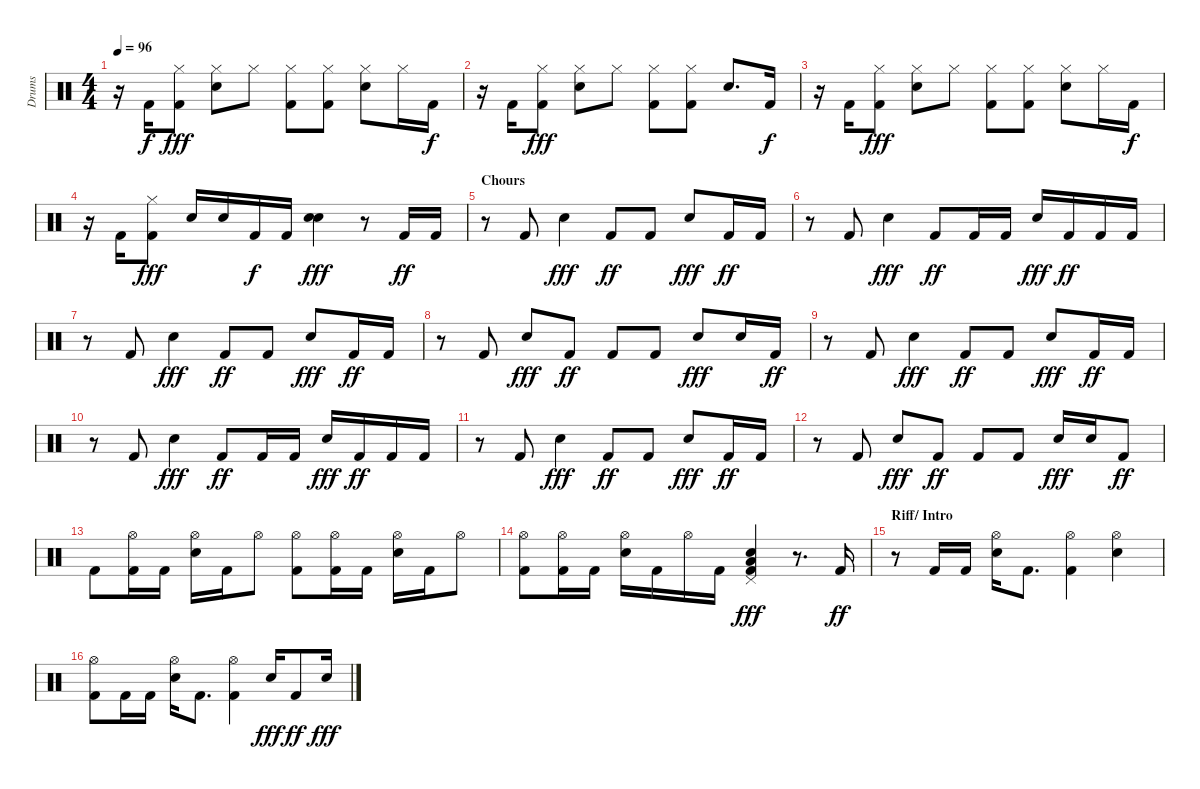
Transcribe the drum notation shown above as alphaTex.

\track ("Drums" "Drums") {instrument percussion}
\staff {score}
\articulation defaults
\ts (4 4)
\tempo 96
\clef neutral
\ks c
r.16{dy f} "Kick (hit) 2".16 ("Hi-Hat (closed)" "Kick (hit) 2").8{dy fff} ("Snare (hit) 2" "Hi-Hat (closed)").8 "Hi-Hat (closed)".8 ("Hi-Hat (closed)" "Kick (hit) 2").8 ("Hi-Hat (closed)" "Kick (hit) 2").8 ("Snare (hit) 2" "Hi-Hat (closed)").8 "Hi-Hat (closed)".16 "Kick (hit) 2".16{dy f} |
r.16 "Kick (hit) 2".16 ("Hi-Hat (closed)" "Kick (hit) 2").8{dy fff} ("Snare (hit) 2" "Hi-Hat (closed)").8 "Hi-Hat (closed)".8 ("Hi-Hat (closed)" "Kick (hit) 2").8 ("Hi-Hat (closed)" "Kick (hit) 2").8 "Snare (hit) 2".8{d} "Kick (hit) 2".16{dy f} |
r.16 "Kick (hit) 2".16 ("Hi-Hat (closed)" "Kick (hit) 2").8{dy fff} ("Snare (hit) 2" "Hi-Hat (closed)").8 "Hi-Hat (closed)".8 ("Hi-Hat (closed)" "Kick (hit) 2").8 ("Hi-Hat (closed)" "Kick (hit) 2").8 ("Snare (hit) 2" "Hi-Hat (closed)").8 "Hi-Hat (closed)".16 "Kick (hit) 2".16{dy f} |
r.16 "Kick (hit) 2".16 ("Hi-Hat (closed)" "Kick (hit) 2").8{dy fff} "Snare (hit) 2".16 "Snare (hit) 2".16 "Kick (hit) 2".16{dy f} "Kick (hit) 2".16 ("Snare (hit) 2" "Snare (hit) 2").4{dy fff} r.8 "Kick (hit) 2".16{dy ff} "Kick (hit) 2".16 |
\section ("" "Chours")
r.8 "Kick (hit) 2".8 "Snare (hit) 2".4{dy fff} "Kick (hit) 2".8{dy ff} "Kick (hit) 2".8 "Snare (hit) 2".8{dy fff} "Kick (hit) 2".16{dy ff} "Kick (hit) 2".16 |
r.8 "Kick (hit) 2".8 "Snare (hit) 2".4{dy fff} "Kick (hit) 2".8{dy ff} "Kick (hit) 2".16 "Kick (hit) 2".16 "Snare (hit) 2".16{dy fff} "Kick (hit) 2".16{dy ff} "Kick (hit) 2".16 "Kick (hit) 2".16 |
r.8 "Kick (hit) 2".8 "Snare (hit) 2".4{dy fff} "Kick (hit) 2".8{dy ff} "Kick (hit) 2".8 "Snare (hit) 2".8{dy fff} "Kick (hit) 2".16{dy ff} "Kick (hit) 2".16 |
r.8 "Kick (hit) 2".8 "Snare (hit) 2".8{dy fff} "Kick (hit) 2".8{dy ff} "Kick (hit) 2".8 "Kick (hit) 2".8 "Snare (hit) 2".8{dy fff} "Snare (hit) 2".16 "Kick (hit) 2".16{dy ff} |
r.8 "Kick (hit) 2".8 "Snare (hit) 2".4{dy fff} "Kick (hit) 2".8{dy ff} "Kick (hit) 2".8 "Snare (hit) 2".8{dy fff} "Kick (hit) 2".16{dy ff} "Kick (hit) 2".16 |
r.8 "Kick (hit) 2".8 "Snare (hit) 2".4{dy fff} "Kick (hit) 2".8{dy ff} "Kick (hit) 2".16 "Kick (hit) 2".16 "Snare (hit) 2".16{dy fff} "Kick (hit) 2".16{dy ff} "Kick (hit) 2".16 "Kick (hit) 2".16 |
r.8 "Kick (hit) 2".8 "Snare (hit) 2".4{dy fff} "Kick (hit) 2".8{dy ff} "Kick (hit) 2".8 "Snare (hit) 2".8{dy fff} "Kick (hit) 2".16{dy ff} "Kick (hit) 2".16 |
r.8 "Kick (hit) 2".8 "Snare (hit) 2".8{dy fff} "Kick (hit) 2".8{dy ff} "Kick (hit) 2".8 "Kick (hit) 2".8 "Snare (hit) 2".16{dy fff} "Snare (hit) 2".16 "Kick (hit) 2".8{dy ff} |
"Kick (hit) 2".8 ("Hi-Hat (open)" "Kick (hit) 2").16 "Kick (hit) 2".16 ("Snare (hit) 2" "Hi-Hat (open)").16 "Kick (hit) 2".16 "Hi-Hat (open)".8 ("Hi-Hat (open)" "Kick (hit) 2").8 ("Hi-Hat (open)" "Kick (hit) 2").16 "Kick (hit) 2".16 ("Snare (hit) 2" "Hi-Hat (open)").16 "Kick (hit) 2".16 "Hi-Hat (open)".8 |
("Hi-Hat (open)" "Kick (hit) 2").8 ("Hi-Hat (open)" "Kick (hit) 2").16 "Kick (hit) 2".16 ("Snare (hit) 2" "Hi-Hat (open)").16 "Kick (hit) 2".16 "Hi-Hat (open)".16 "Kick (hit) 2".16 ("Low Floor Tom (hit)" "Snare (hit) 2" "Pedal Hi-Hat (hit)" "Kick (hit) 2").4{dy fff} r.8{d} "Kick (hit) 2".16{dy ff} |
\section ("" "Riff/ Intro")
r.8 "Kick (hit) 2".16 "Kick (hit) 2".16 ("Snare (hit) 2" "Hi-Hat (open)").16 "Kick (hit) 2".8{d} ("Hi-Hat (open)" "Kick (hit) 2").4 ("Snare (hit) 2" "Hi-Hat (open)").4 |
("Hi-Hat (open)" "Kick (hit) 2").8 "Kick (hit) 2".16 "Kick (hit) 2".16 ("Snare (hit) 2" "Hi-Hat (open)").16 "Kick (hit) 2".8{d} ("Hi-Hat (open)" "Kick (hit) 2").4 "Snare (hit) 2".16{dy fff} "Kick (hit) 2".8{dy ff} "Snare (hit) 2".16{dy fff}
